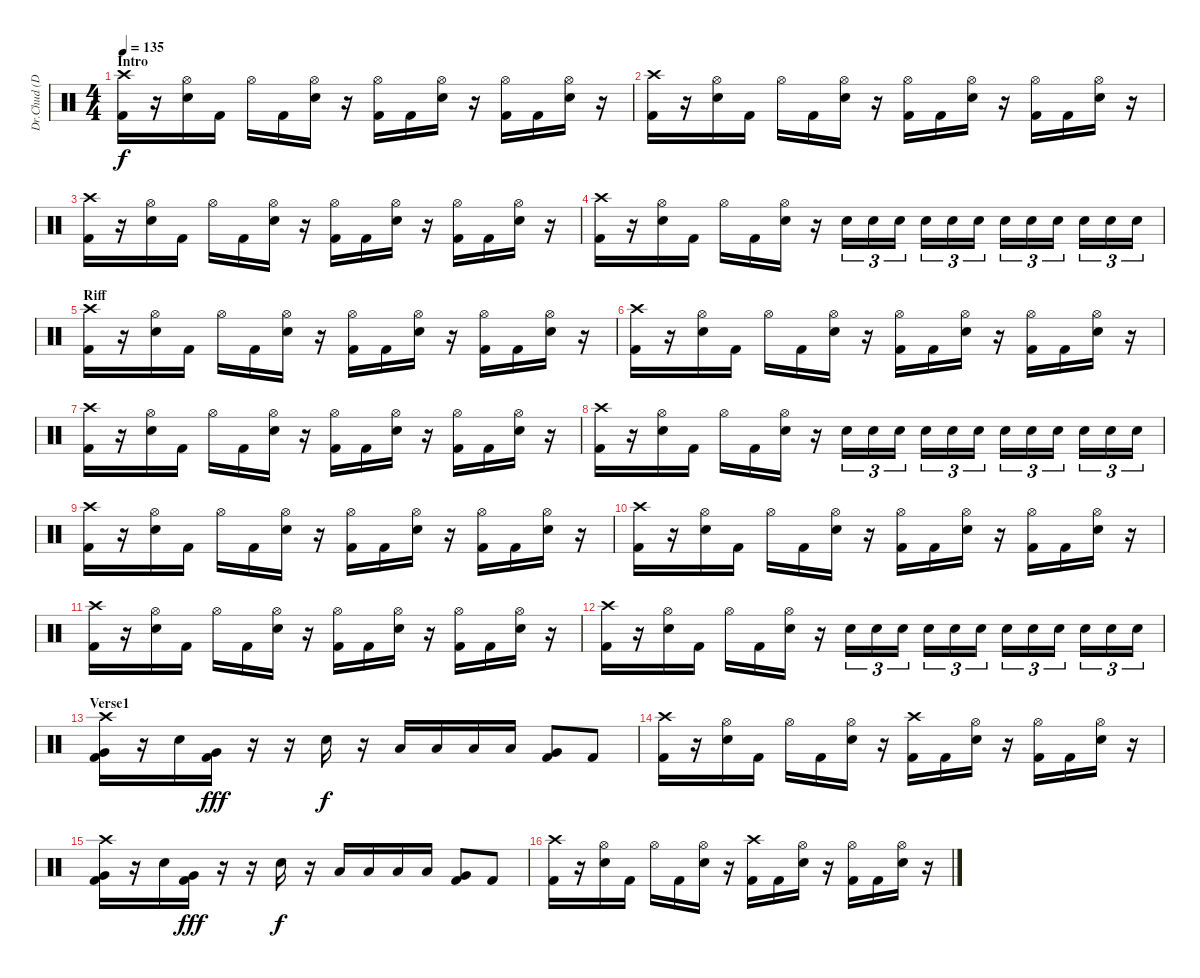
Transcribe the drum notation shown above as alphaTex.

\track ("Dr.Chud (Drums)" "Dr.Chud (D") {instrument percussion}
\staff {score}
\articulation defaults
\ts (4 4)
\section ("" "Intro")
\tempo 135
\clef neutral
\ks c
("Crash high (hit)" "Kick (hit) 2").16{dy f} r.16 ("Hi-Hat (open)" "Snare (hit) 2").16 "Kick (hit) 2".16 "Hi-Hat (open)".16 "Kick (hit) 2".16 ("Hi-Hat (open)" "Snare (hit) 2").16 r.16 ("Hi-Hat (open)" "Kick (hit) 2").16 "Kick (hit) 2".16 ("Hi-Hat (open)" "Snare (hit) 2").16 r.16 ("Hi-Hat (open)" "Kick (hit) 2").16 "Kick (hit) 2".16 ("Hi-Hat (open)" "Snare (hit) 2").16 r.16 |
("Crash high (hit)" "Kick (hit) 2").16 r.16 ("Hi-Hat (open)" "Snare (hit) 2").16 "Kick (hit) 2".16 "Hi-Hat (open)".16 "Kick (hit) 2".16 ("Hi-Hat (open)" "Snare (hit) 2").16 r.16 ("Hi-Hat (open)" "Kick (hit) 2").16 "Kick (hit) 2".16 ("Hi-Hat (open)" "Snare (hit) 2").16 r.16 ("Hi-Hat (open)" "Kick (hit) 2").16 "Kick (hit) 2".16 ("Hi-Hat (open)" "Snare (hit) 2").16 r.16 |
("Crash high (hit)" "Kick (hit) 2").16 r.16 ("Hi-Hat (open)" "Snare (hit) 2").16 "Kick (hit) 2".16 "Hi-Hat (open)".16 "Kick (hit) 2".16 ("Hi-Hat (open)" "Snare (hit) 2").16 r.16 ("Hi-Hat (open)" "Kick (hit) 2").16 "Kick (hit) 2".16 ("Hi-Hat (open)" "Snare (hit) 2").16 r.16 ("Hi-Hat (open)" "Kick (hit) 2").16 "Kick (hit) 2".16 ("Hi-Hat (open)" "Snare (hit) 2").16 r.16 |
("Crash high (hit)" "Kick (hit) 2").16 r.16 ("Hi-Hat (open)" "Snare (hit) 2").16 "Kick (hit) 2".16 "Hi-Hat (open)".16 "Kick (hit) 2".16 ("Hi-Hat (open)" "Snare (hit) 2").16 r.16 "Snare (hit) 2".16{tu (3 2)} "Snare (hit) 2".16{tu (3 2)} "Snare (hit) 2".16{tu (3 2)} "Snare (hit) 2".16{tu (3 2)} "Snare (hit) 2".16{tu (3 2)} "Snare (hit) 2".16{tu (3 2)} "Snare (hit) 2".16{tu (3 2)} "Snare (hit) 2".16{tu (3 2)} "Snare (hit) 2".16{tu (3 2)} "Snare (hit) 2".16{tu (3 2)} "Snare (hit) 2".16{tu (3 2)} "Snare (hit) 2".16{tu (3 2)} |
\section ("" "Riff")
("Crash high (hit)" "Kick (hit) 2").16 r.16 ("Hi-Hat (open)" "Snare (hit) 2").16 "Kick (hit) 2".16 "Hi-Hat (open)".16 "Kick (hit) 2".16 ("Hi-Hat (open)" "Snare (hit) 2").16 r.16 ("Hi-Hat (open)" "Kick (hit) 2").16 "Kick (hit) 2".16 ("Hi-Hat (open)" "Snare (hit) 2").16 r.16 ("Hi-Hat (open)" "Kick (hit) 2").16 "Kick (hit) 2".16 ("Hi-Hat (open)" "Snare (hit) 2").16 r.16 |
("Crash high (hit)" "Kick (hit) 2").16 r.16 ("Hi-Hat (open)" "Snare (hit) 2").16 "Kick (hit) 2".16 "Hi-Hat (open)".16 "Kick (hit) 2".16 ("Hi-Hat (open)" "Snare (hit) 2").16 r.16 ("Hi-Hat (open)" "Kick (hit) 2").16 "Kick (hit) 2".16 ("Hi-Hat (open)" "Snare (hit) 2").16 r.16 ("Hi-Hat (open)" "Kick (hit) 2").16 "Kick (hit) 2".16 ("Hi-Hat (open)" "Snare (hit) 2").16 r.16 |
("Crash high (hit)" "Kick (hit) 2").16 r.16 ("Hi-Hat (open)" "Snare (hit) 2").16 "Kick (hit) 2".16 "Hi-Hat (open)".16 "Kick (hit) 2".16 ("Hi-Hat (open)" "Snare (hit) 2").16 r.16 ("Hi-Hat (open)" "Kick (hit) 2").16 "Kick (hit) 2".16 ("Hi-Hat (open)" "Snare (hit) 2").16 r.16 ("Hi-Hat (open)" "Kick (hit) 2").16 "Kick (hit) 2".16 ("Hi-Hat (open)" "Snare (hit) 2").16 r.16 |
("Crash high (hit)" "Kick (hit) 2").16 r.16 ("Hi-Hat (open)" "Snare (hit) 2").16 "Kick (hit) 2".16 "Hi-Hat (open)".16 "Kick (hit) 2".16 ("Hi-Hat (open)" "Snare (hit) 2").16 r.16 "Snare (hit) 2".16{tu (3 2)} "Snare (hit) 2".16{tu (3 2)} "Snare (hit) 2".16{tu (3 2)} "Snare (hit) 2".16{tu (3 2)} "Snare (hit) 2".16{tu (3 2)} "Snare (hit) 2".16{tu (3 2)} "Snare (hit) 2".16{tu (3 2)} "Snare (hit) 2".16{tu (3 2)} "Snare (hit) 2".16{tu (3 2)} "Snare (hit) 2".16{tu (3 2)} "Snare (hit) 2".16{tu (3 2)} "Snare (hit) 2".16{tu (3 2)} |
("Crash high (hit)" "Kick (hit) 2").16 r.16 ("Hi-Hat (open)" "Snare (hit) 2").16 "Kick (hit) 2".16 "Hi-Hat (open)".16 "Kick (hit) 2".16 ("Hi-Hat (open)" "Snare (hit) 2").16 r.16 ("Hi-Hat (open)" "Kick (hit) 2").16 "Kick (hit) 2".16 ("Hi-Hat (open)" "Snare (hit) 2").16 r.16 ("Hi-Hat (open)" "Kick (hit) 2").16 "Kick (hit) 2".16 ("Hi-Hat (open)" "Snare (hit) 2").16 r.16 |
("Crash high (hit)" "Kick (hit) 2").16 r.16 ("Hi-Hat (open)" "Snare (hit) 2").16 "Kick (hit) 2".16 "Hi-Hat (open)".16 "Kick (hit) 2".16 ("Hi-Hat (open)" "Snare (hit) 2").16 r.16 ("Hi-Hat (open)" "Kick (hit) 2").16 "Kick (hit) 2".16 ("Hi-Hat (open)" "Snare (hit) 2").16 r.16 ("Hi-Hat (open)" "Kick (hit) 2").16 "Kick (hit) 2".16 ("Hi-Hat (open)" "Snare (hit) 2").16 r.16 |
("Crash high (hit)" "Kick (hit) 2").16 r.16 ("Hi-Hat (open)" "Snare (hit) 2").16 "Kick (hit) 2".16 "Hi-Hat (open)".16 "Kick (hit) 2".16 ("Hi-Hat (open)" "Snare (hit) 2").16 r.16 ("Hi-Hat (open)" "Kick (hit) 2").16 "Kick (hit) 2".16 ("Hi-Hat (open)" "Snare (hit) 2").16 r.16 ("Hi-Hat (open)" "Kick (hit) 2").16 "Kick (hit) 2".16 ("Hi-Hat (open)" "Snare (hit) 2").16 r.16 |
("Crash high (hit)" "Kick (hit) 2").16 r.16 ("Hi-Hat (open)" "Snare (hit) 2").16 "Kick (hit) 2".16 "Hi-Hat (open)".16 "Kick (hit) 2".16 ("Hi-Hat (open)" "Snare (hit) 2").16 r.16 "Snare (hit) 2".16{tu (3 2)} "Snare (hit) 2".16{tu (3 2)} "Snare (hit) 2".16{tu (3 2)} "Snare (hit) 2".16{tu (3 2)} "Snare (hit) 2".16{tu (3 2)} "Snare (hit) 2".16{tu (3 2)} "Snare (hit) 2".16{tu (3 2)} "Snare (hit) 2".16{tu (3 2)} "Snare (hit) 2".16{tu (3 2)} "Snare (hit) 2".16{tu (3 2)} "Snare (hit) 2".16{tu (3 2)} "Snare (hit) 2".16{tu (3 2)} |
\section ("" "Verse1")
("Crash high (hit)" "Very Low Tom (hit)" "Kick (hit) 2").16 r.16 "Snare (hit) 2".16 ("Very Low Tom (hit)" "Kick (hit) 2").16{dy fff} r.16 r.16 "Snare (hit) 2".16{dy f} r.16 "Low Tom (hit)".16 "Low Tom (hit)".16 "Low Tom (hit)".16 "Low Tom (hit)".16 ("Very Low Tom (hit)" "Kick (hit) 2").8 "Kick (hit) 2".8 |
("Crash high (hit)" "Kick (hit) 2").16 r.16 ("Hi-Hat (open)" "Snare (hit) 2").16 "Kick (hit) 2".16 "Hi-Hat (open)".16 "Kick (hit) 2".16 ("Hi-Hat (open)" "Snare (hit) 2").16 r.16 ("Crash high (hit)" "Kick (hit) 2").16 "Kick (hit) 2".16 ("Hi-Hat (open)" "Snare (hit) 2").16 r.16 ("Hi-Hat (open)" "Kick (hit) 2").16 "Kick (hit) 2".16 ("Hi-Hat (open)" "Snare (hit) 2").16 r.16 |
("Crash high (hit)" "Very Low Tom (hit)" "Kick (hit) 2").16 r.16 "Snare (hit) 2".16 ("Very Low Tom (hit)" "Kick (hit) 2").16{dy fff} r.16 r.16 "Snare (hit) 2".16{dy f} r.16 "Low Tom (hit)".16 "Low Tom (hit)".16 "Low Tom (hit)".16 "Low Tom (hit)".16 ("Very Low Tom (hit)" "Kick (hit) 2").8 "Kick (hit) 2".8 |
("Crash high (hit)" "Kick (hit) 2").16 r.16 ("Hi-Hat (open)" "Snare (hit) 2").16 "Kick (hit) 2".16 "Hi-Hat (open)".16 "Kick (hit) 2".16 ("Hi-Hat (open)" "Snare (hit) 2").16 r.16 ("Crash high (hit)" "Kick (hit) 2").16 "Kick (hit) 2".16 ("Hi-Hat (open)" "Snare (hit) 2").16 r.16 ("Hi-Hat (open)" "Kick (hit) 2").16 "Kick (hit) 2".16 ("Hi-Hat (open)" "Snare (hit) 2").16 r.16
